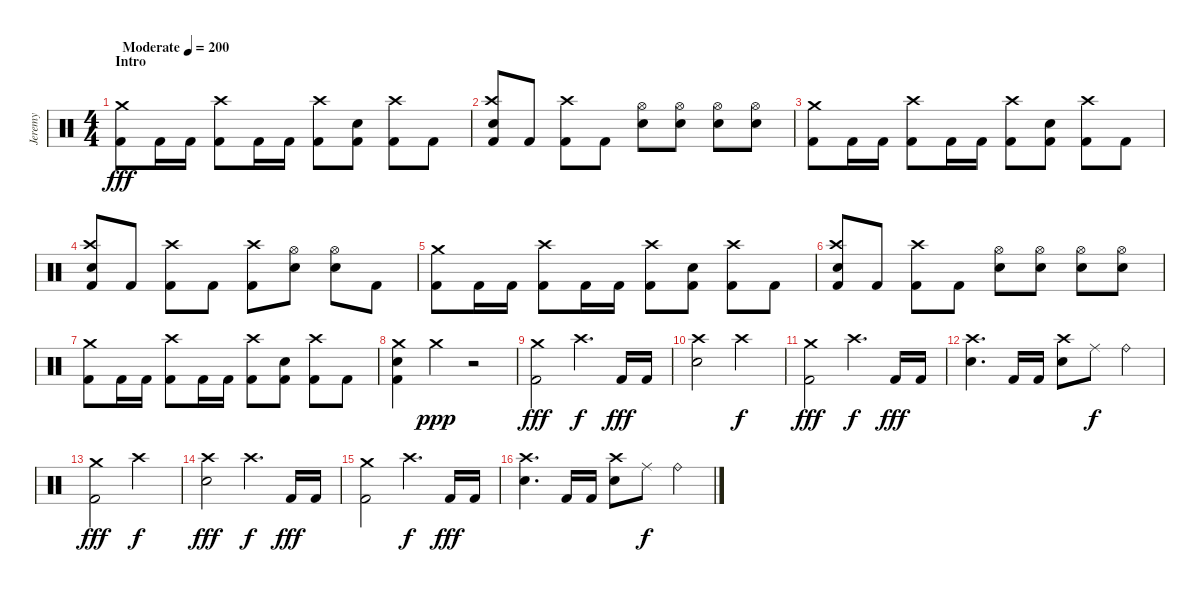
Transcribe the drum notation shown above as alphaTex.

\track ("Jeremy" "Jeremy") {instrument percussion}
\staff {score}
\articulation defaults
\ts (4 4)
\section ("" "Intro")
\tempo (200 "Moderate")
\clef neutral
\ks c
("Crash medium (hit)" "Kick (hit) 2").8{dy fff} "Kick (hit) 2".16 "Kick (hit) 2".16 ("Crash high (hit)" "Kick (hit) 2").8 "Kick (hit) 2".16 "Kick (hit) 2".16 ("Crash high (hit)" "Kick (hit) 2").8 ("Electric Snare (hit)" "Kick (hit) 2").8 ("Crash high (hit)" "Kick (hit) 2").8 "Kick (hit) 2".8 |
("Crash high (hit)" "Electric Snare (hit)" "Kick (hit) 2").8 "Kick (hit) 2".8 ("Crash high (hit)" "Kick (hit) 2").8 "Kick (hit) 2".8 ("Hi-Hat (open)" "Electric Snare (hit)").8 ("Hi-Hat (open)" "Electric Snare (hit)").8 ("Hi-Hat (open)" "Electric Snare (hit)").8 ("Hi-Hat (open)" "Electric Snare (hit)").8 |
("Crash medium (hit)" "Kick (hit) 2").8 "Kick (hit) 2".16 "Kick (hit) 2".16 ("Crash high (hit)" "Kick (hit) 2").8 "Kick (hit) 2".16 "Kick (hit) 2".16 ("Crash high (hit)" "Kick (hit) 2").8 ("Electric Snare (hit)" "Kick (hit) 2").8 ("Crash high (hit)" "Kick (hit) 2").8 "Kick (hit) 2".8 |
("Crash high (hit)" "Electric Snare (hit)" "Kick (hit) 2").8 "Kick (hit) 2".8 ("Crash high (hit)" "Kick (hit) 2").8 "Kick (hit) 2".8 ("Crash high (hit)" "Kick (hit) 2").8 ("Hi-Hat (open)" "Electric Snare (hit)").8 ("Hi-Hat (open)" "Electric Snare (hit)").8 "Kick (hit) 2".8 |
("Crash medium (hit)" "Kick (hit) 2").8 "Kick (hit) 2".16 "Kick (hit) 2".16 ("Crash high (hit)" "Kick (hit) 2").8 "Kick (hit) 2".16 "Kick (hit) 2".16 ("Crash high (hit)" "Kick (hit) 2").8 ("Electric Snare (hit)" "Kick (hit) 2").8 ("Crash high (hit)" "Kick (hit) 2").8 "Kick (hit) 2".8 |
("Crash high (hit)" "Electric Snare (hit)" "Kick (hit) 2").8 "Kick (hit) 2".8 ("Crash high (hit)" "Kick (hit) 2").8 "Kick (hit) 2".8 ("Hi-Hat (open)" "Electric Snare (hit)").8 ("Hi-Hat (open)" "Electric Snare (hit)").8 ("Hi-Hat (open)" "Electric Snare (hit)").8 ("Hi-Hat (open)" "Electric Snare (hit)").8 |
("Crash medium (hit)" "Kick (hit) 2").8 "Kick (hit) 2".16 "Kick (hit) 2".16 ("Crash high (hit)" "Kick (hit) 2").8 "Kick (hit) 2".16 "Kick (hit) 2".16 ("Crash high (hit)" "Kick (hit) 2").8 ("Electric Snare (hit)" "Kick (hit) 2").8 ("Crash high (hit)" "Kick (hit) 2").8 "Kick (hit) 2".8 |
("Crash medium (hit)" "Electric Snare (hit)" "Kick (hit) 2").4 "Crash medium (hit)".4{dy ppp} r.2 |
("Crash medium (hit)" "Kick (hit) 2").2{dy fff} "Crash high (hit)".4{d dy f} "Kick (hit) 2".16{dy fff} "Kick (hit) 2".16 |
("Crash high (hit)" "Electric Snare (hit)").2 "Crash high (hit)".2{dy f} |
("Crash medium (hit)" "Kick (hit) 2").2{dy fff} "Crash high (hit)".4{d dy f} "Kick (hit) 2".16{dy fff} "Kick (hit) 2".16 |
("Crash high (hit)" "Electric Snare (hit)").4{d} "Kick (hit) 2".16 "Kick (hit) 2".16 ("Crash high (hit)" "Electric Snare (hit)").8 "Ride (middle)".8{dy f} "Ride (bell)".4 |
("Crash medium (hit)" "Kick (hit) 2").2{dy fff} "Crash high (hit)".2{dy f} |
("Crash high (hit)" "Electric Snare (hit)").2{dy fff} "Crash high (hit)".4{d dy f} "Kick (hit) 2".16{dy fff} "Kick (hit) 2".16 |
("Crash medium (hit)" "Kick (hit) 2").2 "Crash high (hit)".4{d dy f} "Kick (hit) 2".16{dy fff} "Kick (hit) 2".16 |
("Crash high (hit)" "Electric Snare (hit)").4{d} "Kick (hit) 2".16 "Kick (hit) 2".16 ("Crash high (hit)" "Electric Snare (hit)").8 "Ride (middle)".8{dy f} "Ride (bell)".4
